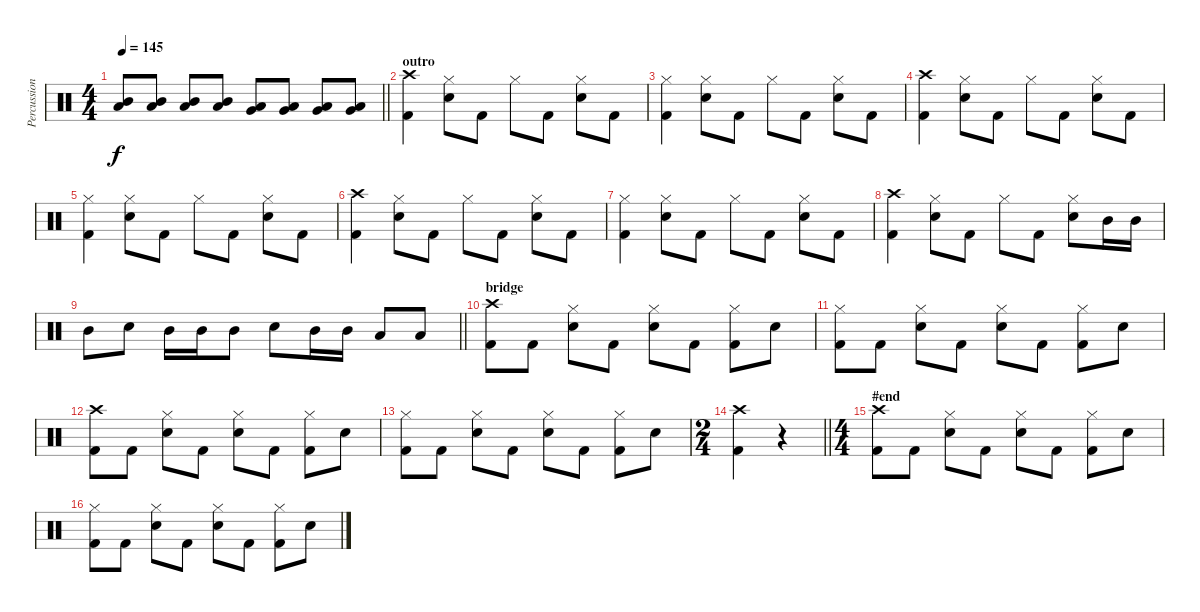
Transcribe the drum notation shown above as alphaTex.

\track ("Percussion" "Percussion") {instrument percussion}
\staff {score}
\articulation defaults
\ts (4 4)
\tempo 145
\clef neutral
\barLineRight lightlight
\ks c
("Low Tom (hit)" "Mid Tom (hit)").8{dy f} ("Low Tom (hit)" "Mid Tom (hit)").8 ("Low Tom (hit)" "Mid Tom (hit)").8 ("Low Tom (hit)" "Mid Tom (hit)").8 ("Very Low Tom (hit)" "Low Tom (hit)").8 ("Very Low Tom (hit)" "Low Tom (hit)").8 ("Very Low Tom (hit)" "Low Tom (hit)").8 ("Very Low Tom (hit)" "Low Tom (hit)").8 |
\section ("" "outro")
("Crash high (hit)" "Kick (hit) 2").4 ("Hi-Hat (closed)" "Electric Snare (hit)").8 "Kick (hit) 2".8 "Hi-Hat (closed)".8 "Kick (hit) 2".8 ("Hi-Hat (closed)" "Electric Snare (hit)").8 "Kick (hit) 2".8 |
("Hi-Hat (closed)" "Kick (hit) 2").4 ("Hi-Hat (closed)" "Electric Snare (hit)").8 "Kick (hit) 2".8 "Hi-Hat (closed)".8 "Kick (hit) 2".8 ("Hi-Hat (closed)" "Electric Snare (hit)").8 "Kick (hit) 2".8 |
("Crash high (hit)" "Kick (hit) 2").4 ("Hi-Hat (closed)" "Electric Snare (hit)").8 "Kick (hit) 2".8 "Hi-Hat (closed)".8 "Kick (hit) 2".8 ("Hi-Hat (closed)" "Electric Snare (hit)").8 "Kick (hit) 2".8 |
("Hi-Hat (closed)" "Kick (hit) 2").4 ("Hi-Hat (closed)" "Electric Snare (hit)").8 "Kick (hit) 2".8 "Hi-Hat (closed)".8 "Kick (hit) 2".8 ("Hi-Hat (closed)" "Electric Snare (hit)").8 "Kick (hit) 2".8 |
("Crash high (hit)" "Kick (hit) 2").4 ("Hi-Hat (closed)" "Electric Snare (hit)").8 "Kick (hit) 2".8 "Hi-Hat (closed)".8 "Kick (hit) 2".8 ("Hi-Hat (closed)" "Electric Snare (hit)").8 "Kick (hit) 2".8 |
("Hi-Hat (closed)" "Kick (hit) 2").4 ("Hi-Hat (closed)" "Electric Snare (hit)").8 "Kick (hit) 2".8 "Hi-Hat (closed)".8 "Kick (hit) 2".8 ("Hi-Hat (closed)" "Electric Snare (hit)").8 "Kick (hit) 2".8 |
("Crash high (hit)" "Kick (hit) 2").4 ("Hi-Hat (closed)" "Electric Snare (hit)").8 "Kick (hit) 2".8 "Hi-Hat (closed)".8 "Kick (hit) 2".8 ("Hi-Hat (closed)" "Electric Snare (hit)").8 "Mid Tom (hit)".16 "Mid Tom (hit)".16 |
\barLineRight lightlight "Mid Tom (hit)".8 "Electric Snare (hit)".8 "Mid Tom (hit)".16 "Mid Tom (hit)".16 "Mid Tom (hit)".8 "Electric Snare (hit)".8 "Mid Tom (hit)".16 "Mid Tom (hit)".16 "Low Tom (hit)".8 "Low Tom (hit)".8
|
\section ("" "bridge")
("Crash high (hit)" "Kick (hit) 2").8 "Kick (hit) 2".8 ("Hi-Hat (closed)" "Electric Snare (hit)").8 "Kick (hit) 2".8 ("Hi-Hat (closed)" "Electric Snare (hit)").8 "Kick (hit) 2".8 ("Hi-Hat (closed)" "Kick (hit) 2").8 "Electric Snare (hit)".8 |
("Hi-Hat (closed)" "Kick (hit) 2").8 "Kick (hit) 2".8 ("Hi-Hat (closed)" "Electric Snare (hit)").8 "Kick (hit) 2".8 ("Hi-Hat (closed)" "Electric Snare (hit)").8 "Kick (hit) 2".8 ("Hi-Hat (closed)" "Kick (hit) 2").8 "Electric Snare (hit)".8 |
("Crash high (hit)" "Kick (hit) 2").8 "Kick (hit) 2".8 ("Hi-Hat (closed)" "Electric Snare (hit)").8 "Kick (hit) 2".8 ("Hi-Hat (closed)" "Electric Snare (hit)").8 "Kick (hit) 2".8 ("Hi-Hat (closed)" "Kick (hit) 2").8 "Electric Snare (hit)".8 |
("Hi-Hat (closed)" "Kick (hit) 2").8 "Kick (hit) 2".8 ("Hi-Hat (closed)" "Electric Snare (hit)").8 "Kick (hit) 2".8 ("Hi-Hat (closed)" "Electric Snare (hit)").8 "Kick (hit) 2".8 ("Hi-Hat (closed)" "Kick (hit) 2").8 "Electric Snare (hit)".8 |
\ts (2 4)
\barLineRight lightlight
("Crash high (hit)" "Kick (hit) 2").4 r.4 |
\ts (4 4)
\section ("" "#end")
("Crash high (hit)" "Kick (hit) 2").8 "Kick (hit) 2".8 ("Hi-Hat (closed)" "Electric Snare (hit)").8 "Kick (hit) 2".8 ("Hi-Hat (closed)" "Electric Snare (hit)").8 "Kick (hit) 2".8 ("Hi-Hat (closed)" "Kick (hit) 2").8 "Electric Snare (hit)".8 |
("Hi-Hat (closed)" "Kick (hit) 2").8 "Kick (hit) 2".8 ("Hi-Hat (closed)" "Electric Snare (hit)").8 "Kick (hit) 2".8 ("Hi-Hat (closed)" "Electric Snare (hit)").8 "Kick (hit) 2".8 ("Hi-Hat (closed)" "Kick (hit) 2").8 "Electric Snare (hit)".8
